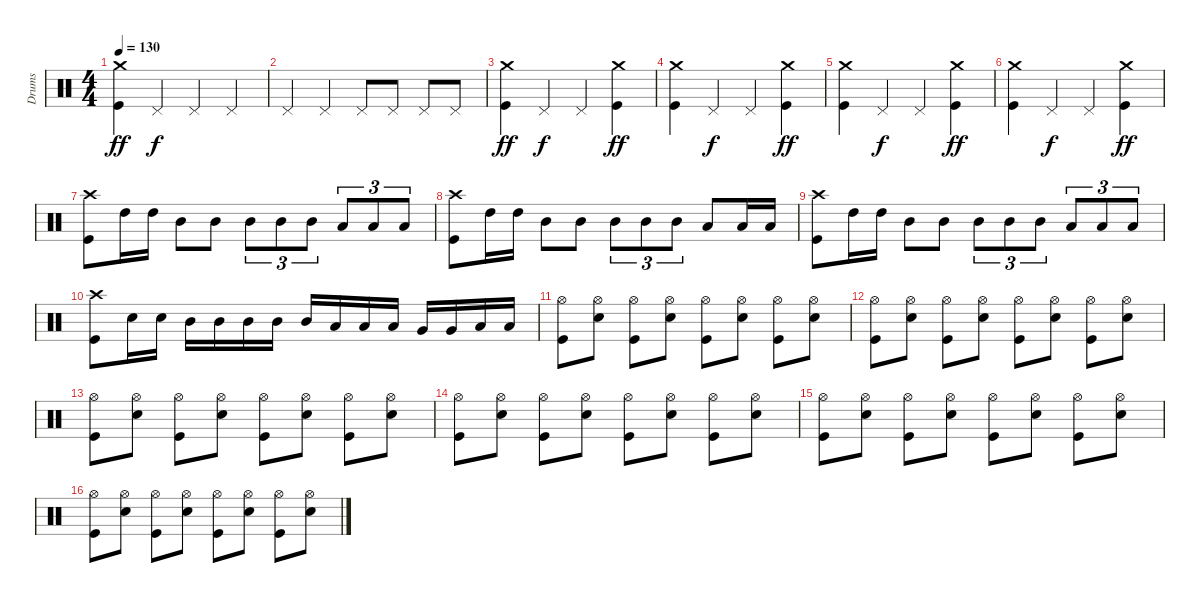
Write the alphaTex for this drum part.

\track ("Drums" "Drums") {instrument percussion}
\staff {score}
\articulation defaults
\ts (4 4)
\tempo 130
\clef neutral
\ks c
("Crash medium (hit)" "Kick (hit)").4{dy ff} "Pedal Hi-Hat (hit)".4{dy f} "Pedal Hi-Hat (hit)".4 "Pedal Hi-Hat (hit)".4 |
"Pedal Hi-Hat (hit)".4 "Pedal Hi-Hat (hit)".4 "Pedal Hi-Hat (hit)".8 "Pedal Hi-Hat (hit)".8 "Pedal Hi-Hat (hit)".8 "Pedal Hi-Hat (hit)".8 |
("Crash medium (hit)" "Kick (hit)").4{dy ff} "Pedal Hi-Hat (hit)".4{dy f} "Pedal Hi-Hat (hit)".4 ("Crash medium (hit)" "Kick (hit)").4{dy ff} |
("Crash medium (hit)" "Kick (hit)").4 "Pedal Hi-Hat (hit)".4{dy f} "Pedal Hi-Hat (hit)".4 ("Crash medium (hit)" "Kick (hit)").4{dy ff} |
("Crash medium (hit)" "Kick (hit)").4 "Pedal Hi-Hat (hit)".4{dy f} "Pedal Hi-Hat (hit)".4 ("Crash medium (hit)" "Kick (hit)").4{dy ff} |
("Crash medium (hit)" "Kick (hit)").4 "Pedal Hi-Hat (hit)".4{dy f} "Pedal Hi-Hat (hit)".4 ("Crash medium (hit)" "Kick (hit)").4{dy ff} |
("Crash high (hit)" "Kick (hit)").8 "High Tom (hit)".16 "High Tom (hit)".16 "Mid Tom (hit)".8 "Mid Tom (hit)".8 "Mid Tom (hit)".8{tu (3 2)} "Mid Tom (hit)".8{tu (3 2)} "Mid Tom (hit)".8{tu (3 2)} "Low Tom (hit)".8{tu (3 2)} "Low Tom (hit)".8{tu (3 2)} "Low Tom (hit)".8{tu (3 2)} |
("Crash high (hit)" "Kick (hit)").8 "High Tom (hit)".16 "High Tom (hit)".16 "Mid Tom (hit)".8 "Mid Tom (hit)".8 "Mid Tom (hit)".8{tu (3 2)} "Mid Tom (hit)".8{tu (3 2)} "Mid Tom (hit)".8{tu (3 2)} "Low Tom (hit)".8 "Low Tom (hit)".16 "Low Tom (hit)".16 |
("Crash high (hit)" "Kick (hit)").8 "High Tom (hit)".16 "High Tom (hit)".16 "Mid Tom (hit)".8 "Mid Tom (hit)".8 "Mid Tom (hit)".8{tu (3 2)} "Mid Tom (hit)".8{tu (3 2)} "Mid Tom (hit)".8{tu (3 2)} "Low Tom (hit)".8{tu (3 2)} "Low Tom (hit)".8{tu (3 2)} "Low Tom (hit)".8{tu (3 2)} |
("Crash high (hit)" "Kick (hit)").8 "Electric Snare (hit)".16 "Electric Snare (hit)".16 "Mid Tom (hit)".16 "Mid Tom (hit)".16 "Mid Tom (hit)".16 "Mid Tom (hit)".16 "Mid Tom (hit)".16 "Low Tom (hit)".16 "Low Tom (hit)".16 "Low Tom (hit)".16 "Very Low Tom (hit)".16 "Very Low Tom (hit)".16 "Low Floor Tom (hit)".16 "Low Floor Tom (hit)".16 |
("Hi-Hat (open)" "Kick (hit)").8 ("Hi-Hat (open)" "Electric Snare (hit)").8 ("Hi-Hat (open)" "Kick (hit)").8 ("Hi-Hat (open)" "Electric Snare (hit)").8 ("Hi-Hat (open)" "Kick (hit)").8 ("Hi-Hat (open)" "Electric Snare (hit)").8 ("Hi-Hat (open)" "Kick (hit)").8 ("Hi-Hat (open)" "Electric Snare (hit)").8 |
("Hi-Hat (open)" "Kick (hit)").8 ("Hi-Hat (open)" "Electric Snare (hit)").8 ("Hi-Hat (open)" "Kick (hit)").8 ("Hi-Hat (open)" "Electric Snare (hit)").8 ("Hi-Hat (open)" "Kick (hit)").8 ("Hi-Hat (open)" "Electric Snare (hit)").8 ("Hi-Hat (open)" "Kick (hit)").8 ("Hi-Hat (open)" "Electric Snare (hit)").8 |
("Hi-Hat (open)" "Kick (hit)").8 ("Hi-Hat (open)" "Electric Snare (hit)").8 ("Hi-Hat (open)" "Kick (hit)").8 ("Hi-Hat (open)" "Electric Snare (hit)").8 ("Hi-Hat (open)" "Kick (hit)").8 ("Hi-Hat (open)" "Electric Snare (hit)").8 ("Hi-Hat (open)" "Kick (hit)").8 ("Hi-Hat (open)" "Electric Snare (hit)").8 |
("Hi-Hat (open)" "Kick (hit)").8 ("Hi-Hat (open)" "Electric Snare (hit)").8 ("Hi-Hat (open)" "Kick (hit)").8 ("Hi-Hat (open)" "Electric Snare (hit)").8 ("Hi-Hat (open)" "Kick (hit)").8 ("Hi-Hat (open)" "Electric Snare (hit)").8 ("Hi-Hat (open)" "Kick (hit)").8 ("Hi-Hat (open)" "Electric Snare (hit)").8 |
("Hi-Hat (open)" "Kick (hit)").8 ("Hi-Hat (open)" "Electric Snare (hit)").8 ("Hi-Hat (open)" "Kick (hit)").8 ("Hi-Hat (open)" "Electric Snare (hit)").8 ("Hi-Hat (open)" "Kick (hit)").8 ("Hi-Hat (open)" "Electric Snare (hit)").8 ("Hi-Hat (open)" "Kick (hit)").8 ("Hi-Hat (open)" "Electric Snare (hit)").8 |
("Hi-Hat (open)" "Kick (hit)").8 ("Hi-Hat (open)" "Electric Snare (hit)").8 ("Hi-Hat (open)" "Kick (hit)").8 ("Hi-Hat (open)" "Electric Snare (hit)").8 ("Hi-Hat (open)" "Kick (hit)").8 ("Hi-Hat (open)" "Electric Snare (hit)").8 ("Hi-Hat (open)" "Kick (hit)").8 ("Hi-Hat (open)" "Electric Snare (hit)").8
